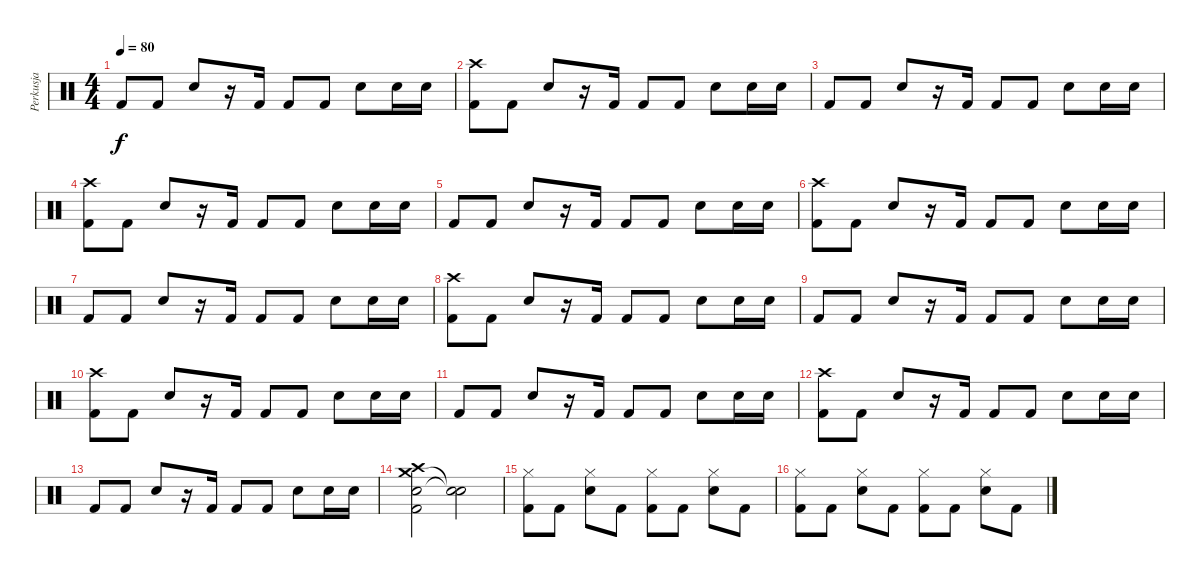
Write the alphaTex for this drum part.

\track ("Perkusja" "Perkusja") {instrument percussion}
\staff {score}
\articulation defaults
\ts (4 4)
\tempo 80
\clef neutral
\ks c "Kick (hit) 2".8{dy f} "Kick (hit) 2".8 "Electric Snare (hit)".8
r.16 "Kick (hit) 2".16 "Kick (hit) 2".8 "Kick (hit) 2".8 "Electric Snare (hit)".8 "Electric Snare (hit)".16 "Electric Snare (hit)".16 |
("Crash high (hit)" "Kick (hit) 2").8 "Kick (hit) 2".8 "Electric Snare (hit)".8 r.16 "Kick (hit) 2".16 "Kick (hit) 2".8 "Kick (hit) 2".8 "Electric Snare (hit)".8 "Electric Snare (hit)".16 "Electric Snare (hit)".16 |
"Kick (hit) 2".8 "Kick (hit) 2".8 "Electric Snare (hit)".8 r.16 "Kick (hit) 2".16 "Kick (hit) 2".8 "Kick (hit) 2".8 "Electric Snare (hit)".8 "Electric Snare (hit)".16 "Electric Snare (hit)".16 |
("Crash high (hit)" "Kick (hit) 2").8 "Kick (hit) 2".8 "Electric Snare (hit)".8 r.16 "Kick (hit) 2".16 "Kick (hit) 2".8 "Kick (hit) 2".8 "Electric Snare (hit)".8 "Electric Snare (hit)".16 "Electric Snare (hit)".16 |
"Kick (hit) 2".8 "Kick (hit) 2".8 "Electric Snare (hit)".8 r.16 "Kick (hit) 2".16 "Kick (hit) 2".8 "Kick (hit) 2".8 "Electric Snare (hit)".8 "Electric Snare (hit)".16 "Electric Snare (hit)".16 |
("Crash high (hit)" "Kick (hit) 2").8 "Kick (hit) 2".8 "Electric Snare (hit)".8 r.16 "Kick (hit) 2".16 "Kick (hit) 2".8 "Kick (hit) 2".8 "Electric Snare (hit)".8 "Electric Snare (hit)".16 "Electric Snare (hit)".16 |
"Kick (hit) 2".8 "Kick (hit) 2".8 "Electric Snare (hit)".8 r.16 "Kick (hit) 2".16 "Kick (hit) 2".8 "Kick (hit) 2".8 "Electric Snare (hit)".8 "Electric Snare (hit)".16 "Electric Snare (hit)".16 |
("Crash high (hit)" "Kick (hit) 2").8 "Kick (hit) 2".8 "Electric Snare (hit)".8 r.16 "Kick (hit) 2".16 "Kick (hit) 2".8 "Kick (hit) 2".8 "Electric Snare (hit)".8 "Electric Snare (hit)".16 "Electric Snare (hit)".16 |
"Kick (hit) 2".8 "Kick (hit) 2".8 "Electric Snare (hit)".8 r.16 "Kick (hit) 2".16 "Kick (hit) 2".8 "Kick (hit) 2".8 "Electric Snare (hit)".8 "Electric Snare (hit)".16 "Electric Snare (hit)".16 |
("Crash high (hit)" "Kick (hit) 2").8 "Kick (hit) 2".8 "Electric Snare (hit)".8 r.16 "Kick (hit) 2".16 "Kick (hit) 2".8 "Kick (hit) 2".8 "Electric Snare (hit)".8 "Electric Snare (hit)".16 "Electric Snare (hit)".16 |
"Kick (hit) 2".8 "Kick (hit) 2".8 "Electric Snare (hit)".8 r.16 "Kick (hit) 2".16 "Kick (hit) 2".8 "Kick (hit) 2".8 "Electric Snare (hit)".8 "Electric Snare (hit)".16 "Electric Snare (hit)".16 |
("Crash high (hit)" "Kick (hit) 2").8 "Kick (hit) 2".8 "Electric Snare (hit)".8 r.16 "Kick (hit) 2".16 "Kick (hit) 2".8 "Kick (hit) 2".8 "Electric Snare (hit)".8 "Electric Snare (hit)".16 "Electric Snare (hit)".16 |
"Kick (hit) 2".8 "Kick (hit) 2".8 "Electric Snare (hit)".8 r.16 "Kick (hit) 2".16 "Kick (hit) 2".8 "Kick (hit) 2".8 "Electric Snare (hit)".8 "Electric Snare (hit)".16 "Electric Snare (hit)".16 |
("Crash medium (hit)" "Electric Snare (hit)" "Crash high (hit)" "Kick (hit) 2").2 ("Snare (hit)"{t} "Snare (hit)"{t}).2 |
("Hi-Hat (closed)" "Kick (hit) 2").8 "Kick (hit) 2".8 ("Hi-Hat (closed)" "Snare (hit) 2").8 "Kick (hit) 2".8 ("Hi-Hat (closed)" "Kick (hit) 2").8 "Kick (hit) 2".8 ("Hi-Hat (closed)" "Snare (hit) 2").8 "Kick (hit) 2".8 |
("Hi-Hat (closed)" "Kick (hit) 2").8 "Kick (hit) 2".8 ("Hi-Hat (closed)" "Snare (hit) 2").8 "Kick (hit) 2".8 ("Hi-Hat (closed)" "Kick (hit) 2").8 "Kick (hit) 2".8 ("Hi-Hat (closed)" "Snare (hit) 2").8 "Kick (hit) 2".8
